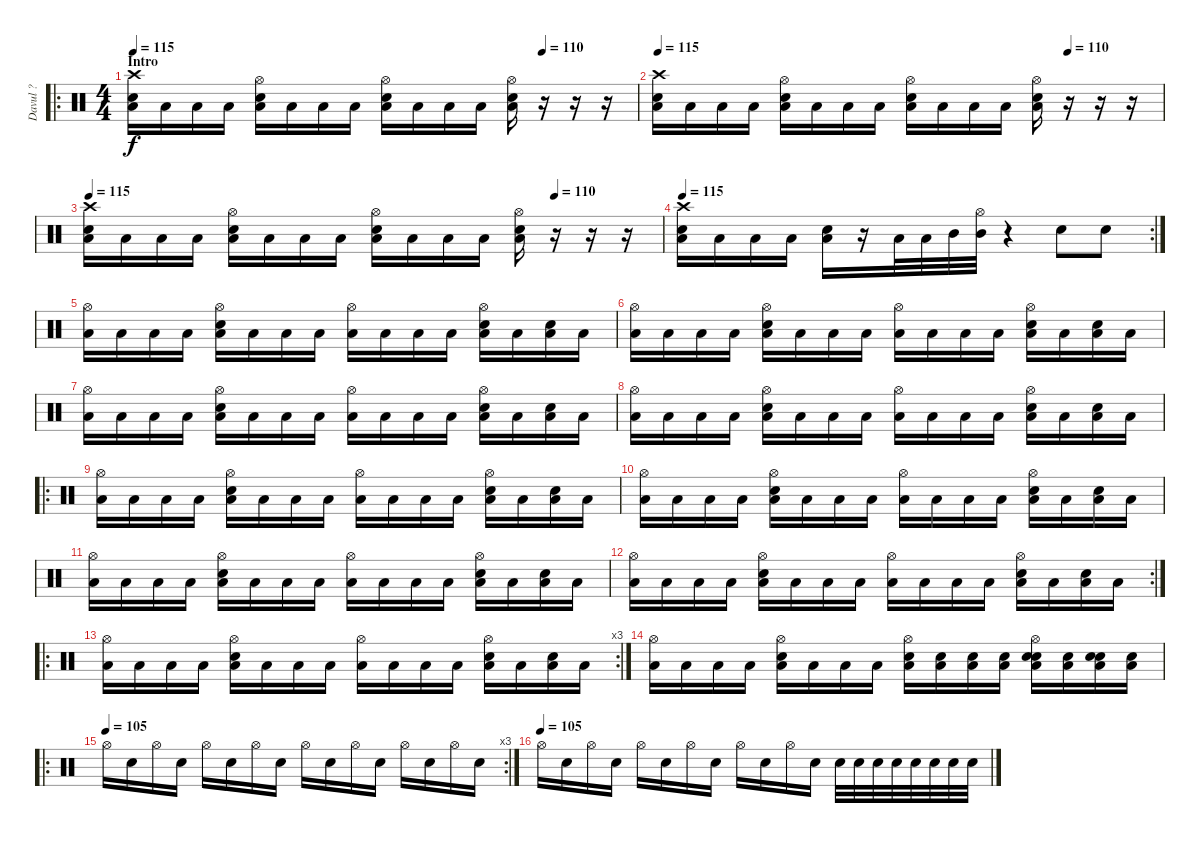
\track ("Davul ?" "Davul ?") {instrument percussion}
\staff {score}
\articulation defaults
\ro
\ts (4 4)
\section ("" "Intro")
\tempo 115
\tempo (110 0.8125)
\tempo 115
\clef neutral
\ks c
("Crash high (hit)" "Low Tom (hit)" "Snare (hit) 2").16{dy f} "Low Tom (hit)".16 "Low Tom (hit)".16 "Low Tom (hit)".16 ("Hi-Hat (open)" "Low Tom (hit)" "Snare (hit) 2").16 "Low Tom (hit)".16 "Low Tom (hit)".16 "Low Tom (hit)".16 ("Hi-Hat (open)" "Low Tom (hit)" "Snare (hit) 2").16 "Low Tom (hit)".16 "Low Tom (hit)".16 "Low Tom (hit)".16 ("Hi-Hat (open)" "Low Tom (hit)" "Snare (hit) 2").16 r.16 r.16 r.16 |
\tempo 115
\tempo (110 0.8125)
("Crash high (hit)" "Low Tom (hit)" "Snare (hit) 2").16 "Low Tom (hit)".16 "Low Tom (hit)".16 "Low Tom (hit)".16 ("Hi-Hat (open)" "Low Tom (hit)" "Snare (hit) 2").16 "Low Tom (hit)".16 "Low Tom (hit)".16 "Low Tom (hit)".16 ("Hi-Hat (open)" "Low Tom (hit)" "Snare (hit) 2").16 "Low Tom (hit)".16 "Low Tom (hit)".16 "Low Tom (hit)".16 ("Hi-Hat (open)" "Low Tom (hit)" "Snare (hit) 2").16 r.16 r.16 r.16 |
\tempo 115
\tempo (110 0.8125)
("Crash high (hit)" "Low Tom (hit)" "Snare (hit) 2").16 "Low Tom (hit)".16 "Low Tom (hit)".16 "Low Tom (hit)".16 ("Hi-Hat (open)" "Low Tom (hit)" "Snare (hit) 2").16 "Low Tom (hit)".16 "Low Tom (hit)".16 "Low Tom (hit)".16 ("Hi-Hat (open)" "Low Tom (hit)" "Snare (hit) 2").16 "Low Tom (hit)".16 "Low Tom (hit)".16 "Low Tom (hit)".16 ("Hi-Hat (open)" "Low Tom (hit)" "Snare (hit) 2").16 r.16 r.16 r.16 |
\rc 2
\tempo 115
("Crash high (hit)" "Low Tom (hit)" "Snare (hit) 2").16 "Low Tom (hit)".16 "Low Tom (hit)".16 "Low Tom (hit)".16 ("Low Tom (hit)" "Snare (hit) 2").16 r.16 "Low Floor Tom (hit)".32 "Low Floor Tom (hit)".32 "Mid Tom (hit)".32 ("Mid Tom (hit)" "Hi-Hat (open)").32 r.4 "Snare (hit) 2".8 "Snare (hit) 2".8 |
("Hi-Hat (open)" "Low Tom (hit)").16 "Low Tom (hit)".16 "Low Tom (hit)".16 "Low Tom (hit)".16 ("Hi-Hat (open)" "Snare (hit) 2" "Low Tom (hit)").16 "Low Tom (hit)".16 "Low Tom (hit)".16 "Low Tom (hit)".16 ("Hi-Hat (open)" "Low Tom (hit)").16 "Low Tom (hit)".16 "Low Tom (hit)".16 "Low Tom (hit)".16 ("Hi-Hat (open)" "Snare (hit) 2" "Low Tom (hit)").16 "Low Tom (hit)".16 ("Electric Snare (hit)" "Low Tom (hit)").16 "Low Tom (hit)".16 |
("Hi-Hat (open)" "Low Tom (hit)").16 "Low Tom (hit)".16 "Low Tom (hit)".16 "Low Tom (hit)".16 ("Hi-Hat (open)" "Snare (hit) 2" "Low Tom (hit)").16 "Low Tom (hit)".16 "Low Tom (hit)".16 "Low Tom (hit)".16 ("Hi-Hat (open)" "Low Tom (hit)").16 "Low Tom (hit)".16 "Low Tom (hit)".16 "Low Tom (hit)".16 ("Hi-Hat (open)" "Snare (hit) 2" "Low Tom (hit)").16 "Low Tom (hit)".16 ("Electric Snare (hit)" "Low Tom (hit)").16 "Low Tom (hit)".16 |
("Hi-Hat (open)" "Low Tom (hit)").16 "Low Tom (hit)".16 "Low Tom (hit)".16 "Low Tom (hit)".16 ("Hi-Hat (open)" "Snare (hit) 2" "Low Tom (hit)").16 "Low Tom (hit)".16 "Low Tom (hit)".16 "Low Tom (hit)".16 ("Hi-Hat (open)" "Low Tom (hit)").16 "Low Tom (hit)".16 "Low Tom (hit)".16 "Low Tom (hit)".16 ("Hi-Hat (open)" "Snare (hit) 2" "Low Tom (hit)").16 "Low Tom (hit)".16 ("Electric Snare (hit)" "Low Tom (hit)").16 "Low Tom (hit)".16 |
("Hi-Hat (open)" "Low Tom (hit)").16 "Low Tom (hit)".16 "Low Tom (hit)".16 "Low Tom (hit)".16 ("Hi-Hat (open)" "Snare (hit) 2" "Low Tom (hit)").16 "Low Tom (hit)".16 "Low Tom (hit)".16 "Low Tom (hit)".16 ("Hi-Hat (open)" "Low Tom (hit)").16 "Low Tom (hit)".16 "Low Tom (hit)".16 "Low Tom (hit)".16 ("Hi-Hat (open)" "Snare (hit) 2" "Low Tom (hit)").16 "Low Tom (hit)".16 ("Electric Snare (hit)" "Low Tom (hit)").16 "Low Tom (hit)".16 |
\ro
("Hi-Hat (open)" "Low Tom (hit)").16 "Low Tom (hit)".16 "Low Tom (hit)".16 "Low Tom (hit)".16 ("Hi-Hat (open)" "Snare (hit) 2" "Low Tom (hit)").16 "Low Tom (hit)".16 "Low Tom (hit)".16 "Low Tom (hit)".16 ("Hi-Hat (open)" "Low Tom (hit)").16 "Low Tom (hit)".16 "Low Tom (hit)".16 "Low Tom (hit)".16 ("Hi-Hat (open)" "Snare (hit) 2" "Low Tom (hit)").16 "Low Tom (hit)".16 ("Electric Snare (hit)" "Low Tom (hit)").16 "Low Tom (hit)".16 |
("Hi-Hat (open)" "Low Tom (hit)").16 "Low Tom (hit)".16 "Low Tom (hit)".16 "Low Tom (hit)".16 ("Hi-Hat (open)" "Snare (hit) 2" "Low Tom (hit)").16 "Low Tom (hit)".16 "Low Tom (hit)".16 "Low Tom (hit)".16 ("Hi-Hat (open)" "Low Tom (hit)").16 "Low Tom (hit)".16 "Low Tom (hit)".16 "Low Tom (hit)".16 ("Hi-Hat (open)" "Snare (hit) 2" "Low Tom (hit)").16 "Low Tom (hit)".16 ("Electric Snare (hit)" "Low Tom (hit)").16 "Low Tom (hit)".16 |
("Hi-Hat (open)" "Low Tom (hit)").16 "Low Tom (hit)".16 "Low Tom (hit)".16 "Low Tom (hit)".16 ("Hi-Hat (open)" "Snare (hit) 2" "Low Tom (hit)").16 "Low Tom (hit)".16 "Low Tom (hit)".16 "Low Tom (hit)".16 ("Hi-Hat (open)" "Low Tom (hit)").16 "Low Tom (hit)".16 "Low Tom (hit)".16 "Low Tom (hit)".16 ("Hi-Hat (open)" "Snare (hit) 2" "Low Tom (hit)").16 "Low Tom (hit)".16 ("Electric Snare (hit)" "Low Tom (hit)").16 "Low Tom (hit)".16 |
\rc 2
("Hi-Hat (open)" "Low Tom (hit)").16 "Low Tom (hit)".16 "Low Tom (hit)".16 "Low Tom (hit)".16 ("Hi-Hat (open)" "Snare (hit) 2" "Low Tom (hit)").16 "Low Tom (hit)".16 "Low Tom (hit)".16 "Low Tom (hit)".16 ("Hi-Hat (open)" "Low Tom (hit)").16 "Low Tom (hit)".16 "Low Tom (hit)".16 "Low Tom (hit)".16 ("Hi-Hat (open)" "Snare (hit) 2" "Low Tom (hit)").16 "Low Tom (hit)".16 ("Electric Snare (hit)" "Low Tom (hit)").16 "Low Tom (hit)".16 |
\ro
\rc 3
("Hi-Hat (open)" "Low Tom (hit)").16 "Low Tom (hit)".16 "Low Tom (hit)".16 "Low Tom (hit)".16 ("Hi-Hat (open)" "Snare (hit) 2" "Low Tom (hit)").16 "Low Tom (hit)".16 "Low Tom (hit)".16 "Low Tom (hit)".16 ("Hi-Hat (open)" "Low Tom (hit)").16 "Low Tom (hit)".16 "Low Tom (hit)".16 "Low Tom (hit)".16 ("Hi-Hat (open)" "Snare (hit) 2" "Low Tom (hit)").16 "Low Tom (hit)".16 ("Electric Snare (hit)" "Low Tom (hit)").16 "Low Tom (hit)".16 |
("Hi-Hat (open)" "Low Tom (hit)").16 "Low Tom (hit)".16 "Low Tom (hit)".16 "Low Tom (hit)".16 ("Hi-Hat (open)" "Snare (hit) 2" "Low Tom (hit)").16 "Low Tom (hit)".16 "Low Tom (hit)".16 "Low Tom (hit)".16 ("Hi-Hat (open)" "Low Tom (hit)" "Snare (hit) 2").16 ("Low Tom (hit)" "Snare (hit) 2").16 ("Low Tom (hit)" "Snare (hit) 2").16 ("Low Tom (hit)" "Snare (hit) 2").16 ("Hi-Hat (open)" "Snare (hit) 2" "Low Tom (hit)" "Snare (hit) 2").16 ("Low Tom (hit)" "Snare (hit) 2").16 ("Electric Snare (hit)" "Low Tom (hit)" "Snare (hit) 2").16 ("Low Tom (hit)" "Snare (hit) 2").16 |
\ro
\rc 3
\tempo (105)
"Hi-Hat (open)".16 "Snare (hit) 2".16 "Hi-Hat (open)".16 "Snare (hit) 2".16 "Hi-Hat (open)".16 "Snare (hit) 2".16 "Hi-Hat (open)".16 "Snare (hit) 2".16 "Hi-Hat (open)".16 "Snare (hit) 2".16 "Hi-Hat (open)".16 "Snare (hit) 2".16 "Hi-Hat (open)".16 "Snare (hit) 2".16 "Hi-Hat (open)".16 "Snare (hit) 2".16 |
\tempo (105)
"Hi-Hat (open)".16 "Snare (hit) 2".16 "Hi-Hat (open)".16 "Snare (hit) 2".16 "Hi-Hat (open)".16 "Snare (hit) 2".16 "Hi-Hat (open)".16 "Snare (hit) 2".16 "Hi-Hat (open)".16 "Snare (hit) 2".16 "Hi-Hat (open)".16 "Snare (hit) 2".16 "Electric Snare (hit)".32 "Electric Snare (hit)".32 "Electric Snare (hit)".32 "Electric Snare (hit)".32 "Electric Snare (hit)".32 "Electric Snare (hit)".32 "Electric Snare (hit)".32 "Electric Snare (hit)".32
